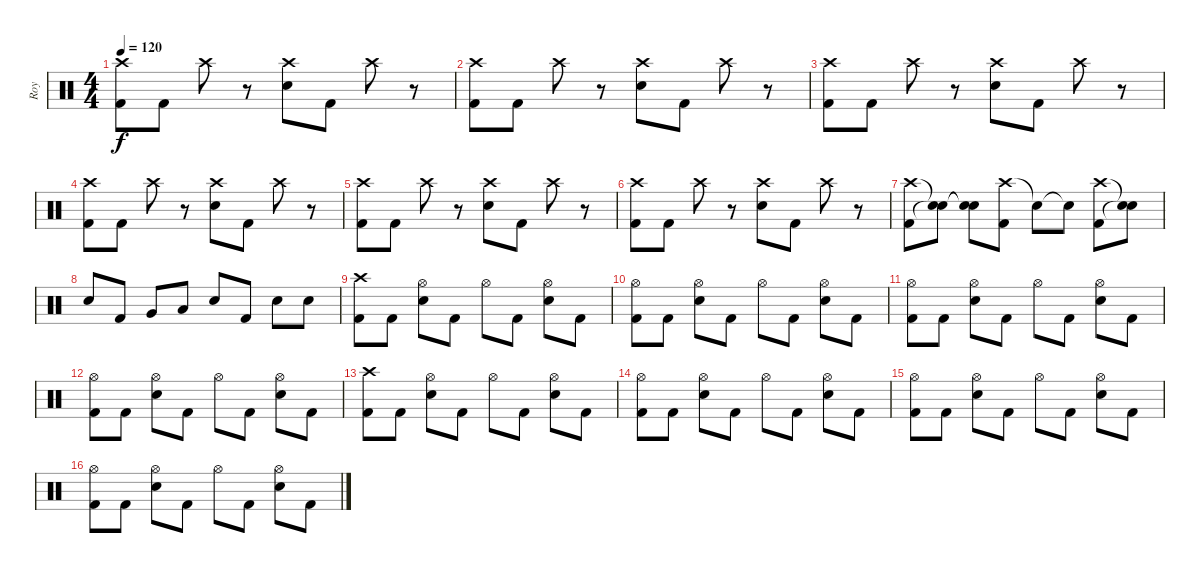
\track ("Roy" "Roy") {instrument percussion}
\staff {score}
\articulation defaults
\ts (4 4)
\tempo 120
\clef neutral
\ks c
("Crash high (hit)" "Kick (hit) 2").8{dy f} "Kick (hit) 2".8 "Crash high (hit)".8 r.8 ("Crash high (hit)" "Electric Snare (hit)").8 "Kick (hit) 2".8 "Crash high (hit)".8 r.8 |
("Crash high (hit)" "Kick (hit) 2").8 "Kick (hit) 2".8 "Crash high (hit)".8 r.8 ("Crash high (hit)" "Electric Snare (hit)").8 "Kick (hit) 2".8 "Crash high (hit)".8 r.8 |
("Crash high (hit)" "Kick (hit) 2").8 "Kick (hit) 2".8 "Crash high (hit)".8 r.8 ("Crash high (hit)" "Electric Snare (hit)").8 "Kick (hit) 2".8 "Crash high (hit)".8 r.8 |
("Crash high (hit)" "Kick (hit) 2").8 "Kick (hit) 2".8 "Crash high (hit)".8 r.8 ("Crash high (hit)" "Electric Snare (hit)").8 "Kick (hit) 2".8 "Crash high (hit)".8 r.8 |
("Crash high (hit)" "Kick (hit) 2").8 "Kick (hit) 2".8 "Crash high (hit)".8 r.8 ("Crash high (hit)" "Electric Snare (hit)").8 "Kick (hit) 2".8 "Crash high (hit)".8 r.8 |
("Crash high (hit)" "Kick (hit) 2").8 "Kick (hit) 2".8 "Crash high (hit)".8 r.8 ("Crash high (hit)" "Electric Snare (hit)").8 "Kick (hit) 2".8 "Crash high (hit)".8 r.8 |
("Crash high (hit)" "Kick (hit) 2").8 ("Snare (hit)"{t} "Snare (hit)"{t}).8 ("Snare (hit)"{t} "Snare (hit)"{t}).8 ("Crash high (hit)" "Kick (hit) 2").8 "Snare (hit)"{t}.8 "Snare (hit)"{t}.8 ("Crash high (hit)" "Kick (hit) 2").8 ("Snare (hit)"{t} "Snare (hit)"{t}).8 |
"Electric Snare (hit)".8 "Kick (hit) 2".8 "Very Low Tom (hit)".8 "Low Floor Tom (hit)".8 "Electric Snare (hit)".8 "Kick (hit) 2".8 "Electric Snare (hit)".8 "Electric Snare (hit)".8 |
("Crash high (hit)" "Kick (hit) 2").8 "Kick (hit) 2".8 ("Hi-Hat (open)" "Electric Snare (hit)").8 "Kick (hit) 2".8 "Hi-Hat (open)".8 "Kick (hit) 2".8 ("Hi-Hat (open)" "Electric Snare (hit)").8 "Kick (hit) 2".8 |
("Hi-Hat (open)" "Kick (hit) 2").8 "Kick (hit) 2".8 ("Hi-Hat (open)" "Electric Snare (hit)").8 "Kick (hit) 2".8 "Hi-Hat (open)".8 "Kick (hit) 2".8 ("Hi-Hat (open)" "Electric Snare (hit)").8 "Kick (hit) 2".8 |
("Hi-Hat (open)" "Kick (hit) 2").8 "Kick (hit) 2".8 ("Hi-Hat (open)" "Electric Snare (hit)").8 "Kick (hit) 2".8 "Hi-Hat (open)".8 "Kick (hit) 2".8 ("Hi-Hat (open)" "Electric Snare (hit)").8 "Kick (hit) 2".8 |
("Hi-Hat (open)" "Kick (hit) 2").8 "Kick (hit) 2".8 ("Hi-Hat (open)" "Electric Snare (hit)").8 "Kick (hit) 2".8 "Hi-Hat (open)".8 "Kick (hit) 2".8 ("Hi-Hat (open)" "Electric Snare (hit)").8 "Kick (hit) 2".8 |
("Crash high (hit)" "Kick (hit) 2").8 "Kick (hit) 2".8 ("Hi-Hat (open)" "Electric Snare (hit)").8 "Kick (hit) 2".8 "Hi-Hat (open)".8 "Kick (hit) 2".8 ("Hi-Hat (open)" "Electric Snare (hit)").8 "Kick (hit) 2".8 |
("Hi-Hat (open)" "Kick (hit) 2").8 "Kick (hit) 2".8 ("Hi-Hat (open)" "Electric Snare (hit)").8 "Kick (hit) 2".8 "Hi-Hat (open)".8 "Kick (hit) 2".8 ("Hi-Hat (open)" "Electric Snare (hit)").8 "Kick (hit) 2".8 |
("Hi-Hat (open)" "Kick (hit) 2").8 "Kick (hit) 2".8 ("Hi-Hat (open)" "Electric Snare (hit)").8 "Kick (hit) 2".8 "Hi-Hat (open)".8 "Kick (hit) 2".8 ("Hi-Hat (open)" "Electric Snare (hit)").8 "Kick (hit) 2".8 |
("Hi-Hat (open)" "Kick (hit) 2").8 "Kick (hit) 2".8 ("Hi-Hat (open)" "Electric Snare (hit)").8 "Kick (hit) 2".8 "Hi-Hat (open)".8 "Kick (hit) 2".8 ("Hi-Hat (open)" "Electric Snare (hit)").8 "Kick (hit) 2".8
